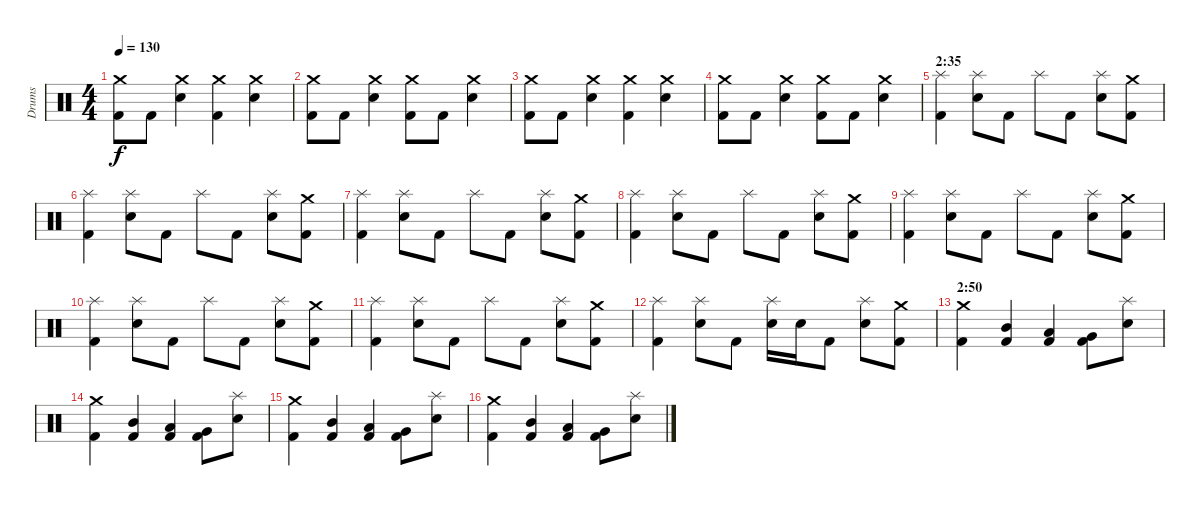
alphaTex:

\track ("Drums" "Drums") {instrument percussion}
\staff {score}
\articulation defaults
\ts (4 4)
\tempo 130
\clef neutral
\ks c
("Crash medium (hit)" "Kick (hit) 2").8{dy f} "Kick (hit) 2".8 ("Crash medium (hit)" "Snare (hit) 2").4 ("Crash medium (hit)" "Kick (hit) 2").4 ("Crash medium (hit)" "Snare (hit) 2").4 |
("Crash medium (hit)" "Kick (hit) 2").8 "Kick (hit) 2".8 ("Crash medium (hit)" "Snare (hit) 2").4 ("Crash medium (hit)" "Kick (hit) 2").8 "Kick (hit) 2".8 ("Crash medium (hit)" "Snare (hit) 2").4 |
("Crash medium (hit)" "Kick (hit) 2").8 "Kick (hit) 2".8 ("Crash medium (hit)" "Snare (hit) 2").4 ("Crash medium (hit)" "Kick (hit) 2").4 ("Crash medium (hit)" "Snare (hit) 2").4 |
("Crash medium (hit)" "Kick (hit) 2").8 "Kick (hit) 2".8 ("Crash medium (hit)" "Snare (hit) 2").4 ("Crash medium (hit)" "Kick (hit) 2").8 "Kick (hit) 2".8 ("Crash medium (hit)" "Snare (hit) 2").4 |
\section ("" "2:35")
("Splash (hit)" "Kick (hit) 2").4 ("Splash (hit)" "Snare (hit) 2").8 "Kick (hit) 2".8 "Splash (hit)".8 "Kick (hit) 2".8 ("Splash (hit)" "Snare (hit) 2").8 ("Crash medium (hit)" "Kick (hit) 2").8 |
("Splash (hit)" "Kick (hit) 2").4 ("Splash (hit)" "Snare (hit) 2").8 "Kick (hit) 2".8 "Splash (hit)".8 "Kick (hit) 2".8 ("Splash (hit)" "Snare (hit) 2").8 ("Crash medium (hit)" "Kick (hit) 2").8 |
("Splash (hit)" "Kick (hit) 2").4 ("Splash (hit)" "Snare (hit) 2").8 "Kick (hit) 2".8 "Splash (hit)".8 "Kick (hit) 2".8 ("Splash (hit)" "Snare (hit) 2").8 ("Crash medium (hit)" "Kick (hit) 2").8 |
("Splash (hit)" "Kick (hit) 2").4 ("Splash (hit)" "Snare (hit) 2").8 "Kick (hit) 2".8 "Splash (hit)".8 "Kick (hit) 2".8 ("Splash (hit)" "Snare (hit) 2").8 ("Crash medium (hit)" "Kick (hit) 2").8 |
("Splash (hit)" "Kick (hit) 2").4 ("Splash (hit)" "Snare (hit) 2").8 "Kick (hit) 2".8 "Splash (hit)".8 "Kick (hit) 2".8 ("Splash (hit)" "Snare (hit) 2").8 ("Crash medium (hit)" "Kick (hit) 2").8 |
("Splash (hit)" "Kick (hit) 2").4 ("Splash (hit)" "Snare (hit) 2").8 "Kick (hit) 2".8 "Splash (hit)".8 "Kick (hit) 2".8 ("Splash (hit)" "Snare (hit) 2").8 ("Crash medium (hit)" "Kick (hit) 2").8 |
("Splash (hit)" "Kick (hit) 2").4 ("Splash (hit)" "Snare (hit) 2").8 "Kick (hit) 2".8 "Splash (hit)".8 "Kick (hit) 2".8 ("Splash (hit)" "Snare (hit) 2").8 ("Crash medium (hit)" "Kick (hit) 2").8 |
("Splash (hit)" "Kick (hit) 2").4 ("Splash (hit)" "Snare (hit) 2").8 "Kick (hit) 2".8 ("Splash (hit)" "Snare (hit) 2").16 "Snare (hit) 2".16 "Kick (hit) 2".8 ("Splash (hit)" "Snare (hit) 2").8 ("Crash medium (hit)" "Kick (hit) 2").8 |
\section ("" "2:50")
("Crash medium (hit)" "Kick (hit) 2").4 ("Mid Tom (hit)" "Kick (hit) 2").4 ("Low Tom (hit)" "Kick (hit) 2").4 ("Very Low Tom (hit)" "Kick (hit) 2").8 ("Splash (hit)" "Snare (hit) 2").8 |
("Crash medium (hit)" "Kick (hit) 2").4 ("Mid Tom (hit)" "Kick (hit) 2").4 ("Low Tom (hit)" "Kick (hit) 2").4 ("Very Low Tom (hit)" "Kick (hit) 2").8 ("Splash (hit)" "Snare (hit) 2").8 |
("Crash medium (hit)" "Kick (hit) 2").4 ("Mid Tom (hit)" "Kick (hit) 2").4 ("Low Tom (hit)" "Kick (hit) 2").4 ("Very Low Tom (hit)" "Kick (hit) 2").8 ("Splash (hit)" "Snare (hit) 2").8 |
("Crash medium (hit)" "Kick (hit) 2").4 ("Mid Tom (hit)" "Kick (hit) 2").4 ("Low Tom (hit)" "Kick (hit) 2").4 ("Very Low Tom (hit)" "Kick (hit) 2").8 ("Splash (hit)" "Snare (hit) 2").8
